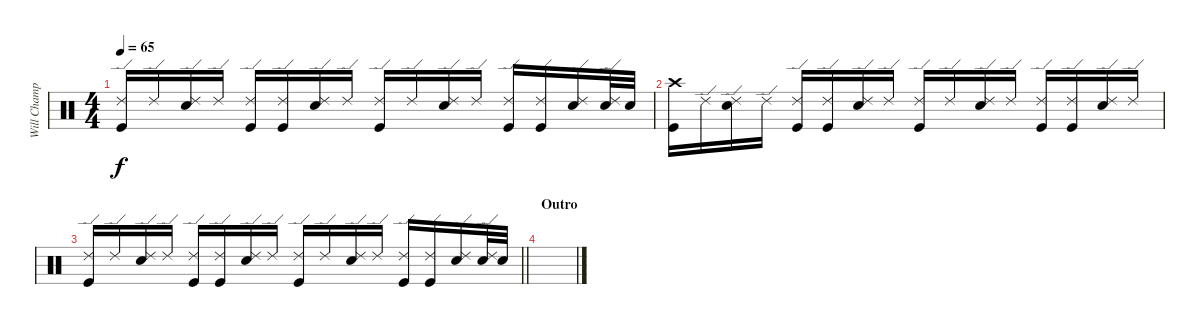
\track ("Will Champion-Drums" "Will Champ") {instrument percussion}
\staff {score}
\articulation defaults
\ts (4 4)
\tempo 65
\clef neutral
\ks c
("Ride (edge) 2" "Kick (hit)").16{dy f} "Ride (edge) 2".16 ("Ride (edge) 2" "Snare (hit) 2").16 "Ride (edge) 2".16 ("Ride (edge) 2" "Kick (hit)").16 ("Ride (edge) 2" "Kick (hit)").16 ("Ride (edge) 2" "Snare (hit) 2").16 "Ride (edge) 2".16 ("Ride (edge) 2" "Kick (hit)").16 "Ride (edge) 2".16 ("Ride (edge) 2" "Snare (hit) 2").16 "Ride (edge) 2".16 ("Ride (edge) 2" "Kick (hit)").16 ("Ride (edge) 2" "Kick (hit)").16 ("Ride (edge) 2" "Snare (hit) 2").16 ("Ride (edge) 2" "Snare (hit) 2").32 "Snare (hit) 2".32 |
("Crash high (hit)" "Kick (hit)").16 "Ride (edge) 2".16 ("Ride (edge) 2" "Snare (hit) 2").16 "Ride (edge) 2".16 ("Ride (edge) 2" "Kick (hit)").16 ("Ride (edge) 2" "Kick (hit)").16 ("Ride (edge) 2" "Snare (hit) 2").16 "Ride (edge) 2".16 ("Ride (edge) 2" "Kick (hit)").16 "Ride (edge) 2".16 ("Ride (edge) 2" "Snare (hit) 2").16 "Ride (edge) 2".16 ("Ride (edge) 2" "Kick (hit)").16 ("Ride (edge) 2" "Kick (hit)").16 ("Ride (edge) 2" "Snare (hit) 2").16 "Ride (edge) 2".16 |
\barLineRight lightlight
("Ride (edge) 2" "Kick (hit)").16 "Ride (edge) 2".16 ("Ride (edge) 2" "Snare (hit) 2").16 "Ride (edge) 2".16 ("Ride (edge) 2" "Kick (hit)").16 ("Ride (edge) 2" "Kick (hit)").16 ("Ride (edge) 2" "Snare (hit) 2").16 "Ride (edge) 2".16 ("Ride (edge) 2" "Kick (hit)").16 "Ride (edge) 2".16 ("Ride (edge) 2" "Snare (hit) 2").16 "Ride (edge) 2".16 ("Ride (edge) 2" "Kick (hit)").16 ("Ride (edge) 2" "Kick (hit)").16 ("Ride (edge) 2" "Snare (hit) 2").16 ("Ride (edge) 2" "Snare (hit) 2").32 "Snare (hit) 2".32 |
\section ("" "Outro")
